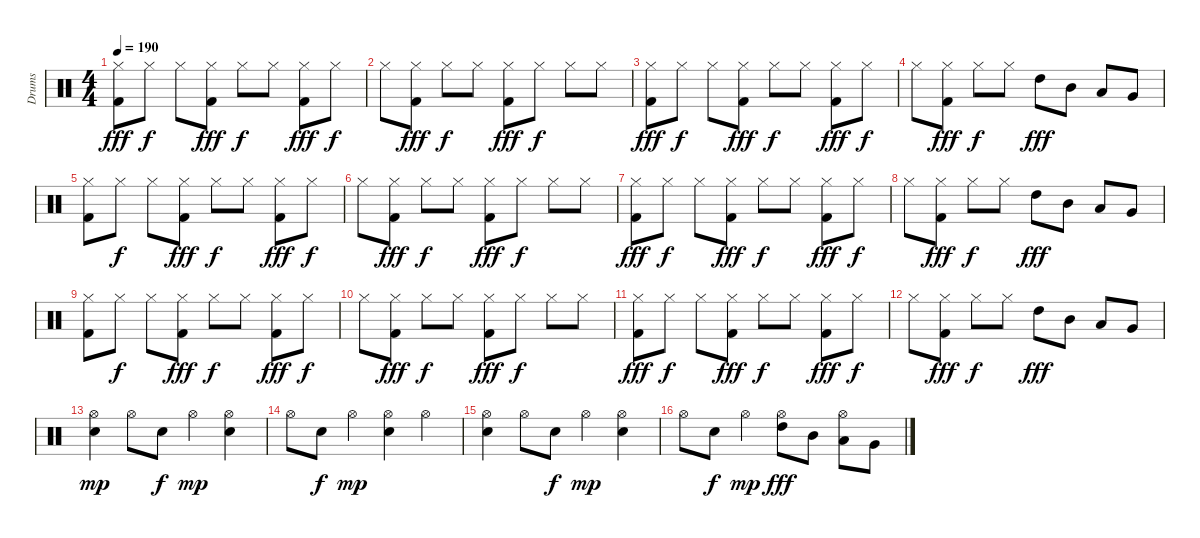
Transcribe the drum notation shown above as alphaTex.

\track ("Drums" "Drums") {instrument percussion}
\staff {score}
\articulation defaults
\ts (4 4)
\tempo 190
\clef neutral
\ks c
("Hi-Hat (closed)" "Kick (hit) 2").8{dy fff} "Hi-Hat (closed)".8{dy f} "Hi-Hat (closed)".8 ("Hi-Hat (closed)" "Kick (hit) 2").8{dy fff} "Hi-Hat (closed)".8{dy f} "Hi-Hat (closed)".8 ("Hi-Hat (closed)" "Kick (hit) 2").8{dy fff} "Hi-Hat (closed)".8{dy f} |
"Hi-Hat (closed)".8 ("Hi-Hat (closed)" "Kick (hit) 2").8{dy fff} "Hi-Hat (closed)".8{dy f} "Hi-Hat (closed)".8 ("Hi-Hat (closed)" "Kick (hit) 2").8{dy fff} "Hi-Hat (closed)".8{dy f} "Hi-Hat (closed)".8 "Hi-Hat (closed)".8 |
("Hi-Hat (closed)" "Kick (hit) 2").8{dy fff} "Hi-Hat (closed)".8{dy f} "Hi-Hat (closed)".8 ("Hi-Hat (closed)" "Kick (hit) 2").8{dy fff} "Hi-Hat (closed)".8{dy f} "Hi-Hat (closed)".8 ("Hi-Hat (closed)" "Kick (hit) 2").8{dy fff} "Hi-Hat (closed)".8{dy f} |
"Hi-Hat (closed)".8 ("Hi-Hat (closed)" "Kick (hit) 2").8{dy fff} "Hi-Hat (closed)".8{dy f} "Hi-Hat (closed)".8 "High Tom (hit)".8{dy fff} "Mid Tom (hit)".8 "Low Tom (hit)".8 "Very Low Tom (hit)".8 |
("Hi-Hat (closed)" "Kick (hit) 2").8 "Hi-Hat (closed)".8{dy f} "Hi-Hat (closed)".8 ("Hi-Hat (closed)" "Kick (hit) 2").8{dy fff} "Hi-Hat (closed)".8{dy f} "Hi-Hat (closed)".8 ("Hi-Hat (closed)" "Kick (hit) 2").8{dy fff} "Hi-Hat (closed)".8{dy f} |
"Hi-Hat (closed)".8 ("Hi-Hat (closed)" "Kick (hit) 2").8{dy fff} "Hi-Hat (closed)".8{dy f} "Hi-Hat (closed)".8 ("Hi-Hat (closed)" "Kick (hit) 2").8{dy fff} "Hi-Hat (closed)".8{dy f} "Hi-Hat (closed)".8 "Hi-Hat (closed)".8 |
("Hi-Hat (closed)" "Kick (hit) 2").8{dy fff} "Hi-Hat (closed)".8{dy f} "Hi-Hat (closed)".8 ("Hi-Hat (closed)" "Kick (hit) 2").8{dy fff} "Hi-Hat (closed)".8{dy f} "Hi-Hat (closed)".8 ("Hi-Hat (closed)" "Kick (hit) 2").8{dy fff} "Hi-Hat (closed)".8{dy f} |
"Hi-Hat (closed)".8 ("Hi-Hat (closed)" "Kick (hit) 2").8{dy fff} "Hi-Hat (closed)".8{dy f} "Hi-Hat (closed)".8 "High Tom (hit)".8{dy fff} "Mid Tom (hit)".8 "Low Tom (hit)".8 "Very Low Tom (hit)".8 |
("Hi-Hat (closed)" "Kick (hit) 2").8 "Hi-Hat (closed)".8{dy f} "Hi-Hat (closed)".8 ("Hi-Hat (closed)" "Kick (hit) 2").8{dy fff} "Hi-Hat (closed)".8{dy f} "Hi-Hat (closed)".8 ("Hi-Hat (closed)" "Kick (hit) 2").8{dy fff} "Hi-Hat (closed)".8{dy f} |
"Hi-Hat (closed)".8 ("Hi-Hat (closed)" "Kick (hit) 2").8{dy fff} "Hi-Hat (closed)".8{dy f} "Hi-Hat (closed)".8 ("Hi-Hat (closed)" "Kick (hit) 2").8{dy fff} "Hi-Hat (closed)".8{dy f} "Hi-Hat (closed)".8 "Hi-Hat (closed)".8 |
("Hi-Hat (closed)" "Kick (hit) 2").8{dy fff} "Hi-Hat (closed)".8{dy f} "Hi-Hat (closed)".8 ("Hi-Hat (closed)" "Kick (hit) 2").8{dy fff} "Hi-Hat (closed)".8{dy f} "Hi-Hat (closed)".8 ("Hi-Hat (closed)" "Kick (hit) 2").8{dy fff} "Hi-Hat (closed)".8{dy f} |
"Hi-Hat (closed)".8 ("Hi-Hat (closed)" "Kick (hit) 2").8{dy fff} "Hi-Hat (closed)".8{dy f} "Hi-Hat (closed)".8 "High Tom (hit)".8{dy fff} "Mid Tom (hit)".8 "Low Tom (hit)".8 "Very Low Tom (hit)".8 |
("Hi-Hat (open)" "Snare (hit) 2").4{dy mp} "Hi-Hat (open)".8 "Snare (hit) 2".8{dy f} "Hi-Hat (open)".4{dy mp} ("Hi-Hat (open)" "Snare (hit) 2").4 |
"Hi-Hat (open)".8 "Snare (hit) 2".8{dy f} "Hi-Hat (open)".4{dy mp} ("Hi-Hat (open)" "Snare (hit) 2").4 "Hi-Hat (open)".4 |
("Hi-Hat (open)" "Snare (hit) 2").4 "Hi-Hat (open)".8 "Snare (hit) 2".8{dy f} "Hi-Hat (open)".4{dy mp} ("Hi-Hat (open)" "Snare (hit) 2").4 |
"Hi-Hat (open)".8 "Snare (hit) 2".8{dy f} "Hi-Hat (open)".4{dy mp} ("Hi-Hat (open)" "High Tom (hit)").8{dy fff} "Mid Tom (hit)".8 ("Hi-Hat (open)" "Low Tom (hit)").8 "Very Low Tom (hit)".8
